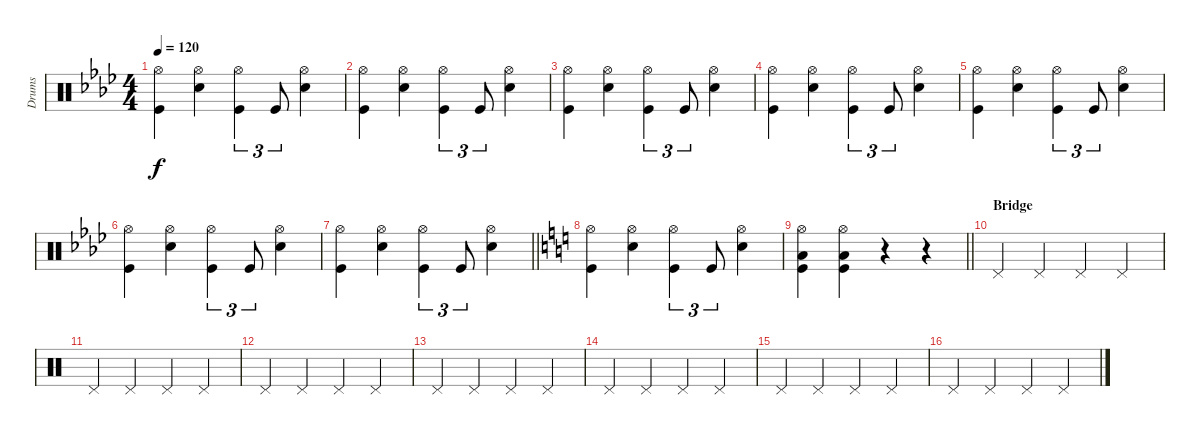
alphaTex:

\track ("Drums" "Drums") {instrument percussion}
\staff {score}
\articulation defaults
\ts (4 4)
\tempo 120
\clef neutral
\ks ab
("Hi-Hat (open)" "Kick (hit)").4{dy f} ("Hi-Hat (open)" "Snare (hit) 2").4 ("Hi-Hat (open)" "Kick (hit)").4{tu (3 2)} "Kick (hit)".8{tu (3 2)} ("Hi-Hat (open)" "Snare (hit) 2").4 |
("Hi-Hat (open)" "Kick (hit)").4 ("Hi-Hat (open)" "Snare (hit) 2").4 ("Hi-Hat (open)" "Kick (hit)").4{tu (3 2)} "Kick (hit)".8{tu (3 2)} ("Hi-Hat (open)" "Snare (hit) 2").4 |
("Hi-Hat (open)" "Kick (hit)").4 ("Hi-Hat (open)" "Snare (hit) 2").4 ("Hi-Hat (open)" "Kick (hit)").4{tu (3 2)} "Kick (hit)".8{tu (3 2)} ("Hi-Hat (open)" "Snare (hit) 2").4 |
("Hi-Hat (open)" "Kick (hit)").4 ("Hi-Hat (open)" "Snare (hit) 2").4 ("Hi-Hat (open)" "Kick (hit)").4{tu (3 2)} "Kick (hit)".8{tu (3 2)} ("Hi-Hat (open)" "Snare (hit) 2").4 |
("Hi-Hat (open)" "Kick (hit)").4 ("Hi-Hat (open)" "Snare (hit) 2").4 ("Hi-Hat (open)" "Kick (hit)").4{tu (3 2)} "Kick (hit)".8{tu (3 2)} ("Hi-Hat (open)" "Snare (hit) 2").4 |
("Hi-Hat (open)" "Kick (hit)").4 ("Hi-Hat (open)" "Snare (hit) 2").4 ("Hi-Hat (open)" "Kick (hit)").4{tu (3 2)} "Kick (hit)".8{tu (3 2)} ("Hi-Hat (open)" "Snare (hit) 2").4 |
\barLineRight lightlight
("Hi-Hat (open)" "Kick (hit)").4 ("Hi-Hat (open)" "Snare (hit) 2").4 ("Hi-Hat (open)" "Kick (hit)").4{tu (3 2)} "Kick (hit)".8{tu (3 2)} ("Hi-Hat (open)" "Snare (hit) 2").4 |
\ks c
("Hi-Hat (open)" "Kick (hit)").4 ("Hi-Hat (open)" "Snare (hit) 2").4 ("Hi-Hat (open)" "Kick (hit)").4{tu (3 2)} "Kick (hit)".8{tu (3 2)} ("Hi-Hat (open)" "Snare (hit) 2").4 |
\barLineRight lightlight
("Hi-Hat (open)" "Low Floor Tom (hit)" "Kick (hit)").4 ("Hi-Hat (open)" "Low Floor Tom (hit)" "Kick (hit)").4 r.4 r.4 |
\section ("" "Bridge")
"Pedal Hi-Hat (hit)".4 "Pedal Hi-Hat (hit)".4 "Pedal Hi-Hat (hit)".4 "Pedal Hi-Hat (hit)".4 |
"Pedal Hi-Hat (hit)".4 "Pedal Hi-Hat (hit)".4 "Pedal Hi-Hat (hit)".4 "Pedal Hi-Hat (hit)".4 |
"Pedal Hi-Hat (hit)".4 "Pedal Hi-Hat (hit)".4 "Pedal Hi-Hat (hit)".4 "Pedal Hi-Hat (hit)".4 |
"Pedal Hi-Hat (hit)".4 "Pedal Hi-Hat (hit)".4 "Pedal Hi-Hat (hit)".4 "Pedal Hi-Hat (hit)".4 |
"Pedal Hi-Hat (hit)".4 "Pedal Hi-Hat (hit)".4 "Pedal Hi-Hat (hit)".4 "Pedal Hi-Hat (hit)".4 |
"Pedal Hi-Hat (hit)".4 "Pedal Hi-Hat (hit)".4 "Pedal Hi-Hat (hit)".4 "Pedal Hi-Hat (hit)".4 |
"Pedal Hi-Hat (hit)".4 "Pedal Hi-Hat (hit)".4 "Pedal Hi-Hat (hit)".4 "Pedal Hi-Hat (hit)".4
